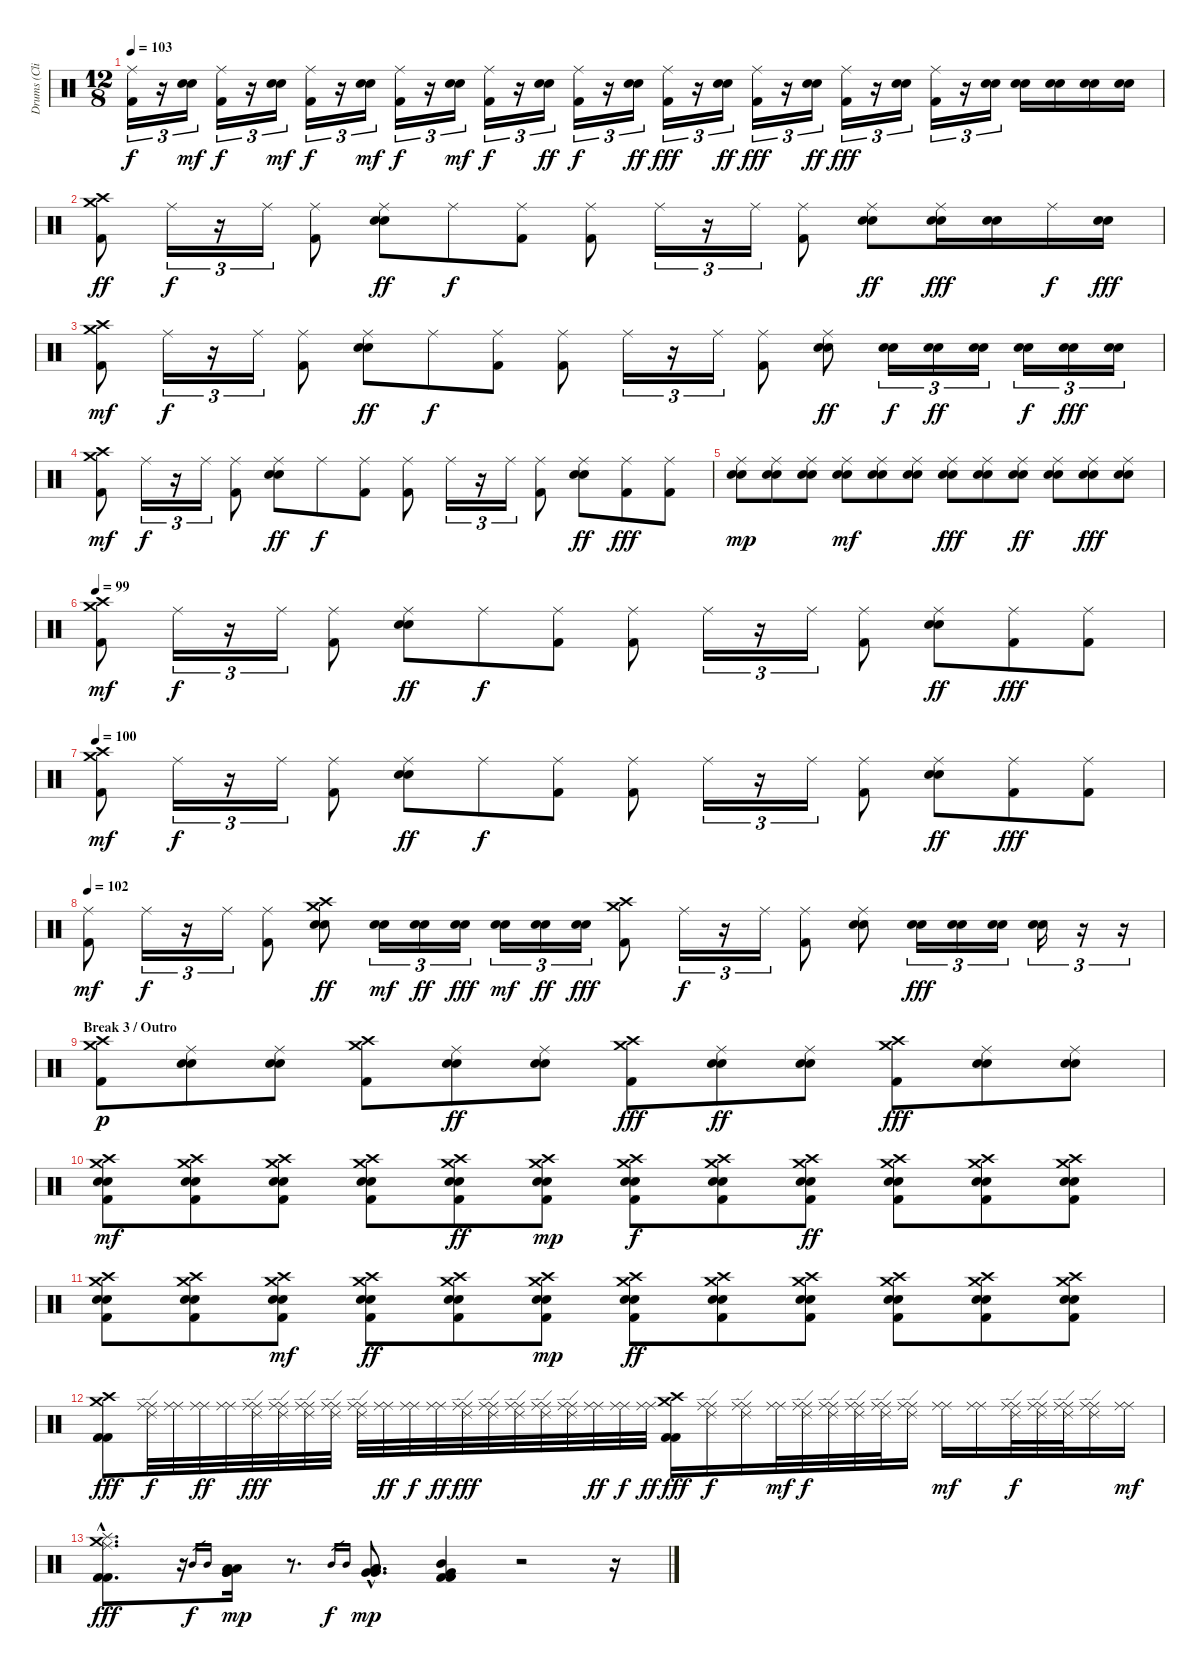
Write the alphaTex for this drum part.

\track ("Drums (Clifford)" "Drums (Cli") {instrument percussion}
\staff {score}
\articulation defaults
\ts (12 8)
\tempo 100
\tempo 103
\clef neutral
\ks c
("Ride (middle)" "Kick (hit) 2").16{tu (3 2) dy f volume 16} r.16{tu (3 2)} ("Snare (hit) 2" "Electric Snare (hit)").16{tu (3 2) dy mf} ("Ride (middle)" "Kick (hit) 2").16{tu (3 2) dy f} r.16{tu (3 2)} ("Snare (hit) 2" "Electric Snare (hit)").16{tu (3 2) dy mf} ("Ride (middle)" "Kick (hit) 2").16{tu (3 2) dy f} r.16{tu (3 2)} ("Snare (hit) 2" "Electric Snare (hit)").16{tu (3 2) dy mf} ("Ride (middle)" "Kick (hit) 2").16{tu (3 2) dy f} r.16{tu (3 2)} ("Snare (hit) 2" "Electric Snare (hit)").16{tu (3 2) dy mf} ("Ride (middle)" "Kick (hit) 2").16{tu (3 2) dy f} r.16{tu (3 2)} ("Snare (hit) 2" "Electric Snare (hit)").16{tu (3 2) dy ff} ("Ride (middle)" "Kick (hit) 2").16{tu (3 2) dy f} r.16{tu (3 2)} ("Snare (hit) 2" "Electric Snare (hit)").16{tu (3 2) dy ff} ("Ride (middle)" "Kick (hit) 2").16{tu (3 2) dy fff} r.16{tu (3 2)} ("Snare (hit) 2" "Electric Snare (hit)").16{tu (3 2) dy ff} ("Ride (middle)" "Kick (hit) 2").16{tu (3 2) dy fff} r.16{tu (3 2)} ("Snare (hit) 2" "Electric Snare (hit)").16{tu (3 2) dy ff} ("Ride (middle)" "Kick (hit) 2").16{tu (3 2) dy fff} r.16{tu (3 2)} ("Snare (hit) 2" "Electric Snare (hit)").16{tu (3 2)} ("Ride (middle)" "Kick (hit) 2").16{tu (3 2)} r.16{tu (3 2)} ("Snare (hit) 2" "Electric Snare (hit)").16{tu (3 2)} ("Snare (hit) 2" "Electric Snare (hit)").16 ("Snare (hit) 2" "Electric Snare (hit)").16 ("Snare (hit) 2" "Electric Snare (hit)").16 ("Snare (hit) 2" "Electric Snare (hit)").16 |
("Crash medium (hit)" "Crash high (hit)" "Kick (hit) 2").8{dy ff} "Ride (middle)".16{tu (3 2) dy f} r.16{tu (3 2)} "Ride (middle)".16{tu (3 2)} ("Ride (middle)" "Kick (hit) 2").8 ("Ride (middle)" "Snare (hit) 2" "Electric Snare (hit)").8{dy ff} "Ride (middle)".8{dy f} ("Ride (middle)" "Kick (hit) 2").8 ("Ride (middle)" "Kick (hit) 2").8 "Ride (middle)".16{tu (3 2)} r.16{tu (3 2)} "Ride (middle)".16{tu (3 2)} ("Ride (middle)" "Kick (hit) 2").8 ("Ride (middle)" "Snare (hit) 2" "Electric Snare (hit)").8{dy ff} ("Ride (middle)" "Snare (hit) 2" "Electric Snare (hit)").16{dy fff} ("Snare (hit) 2" "Electric Snare (hit)").16 "Ride (middle)".16{dy f} ("Snare (hit) 2" "Electric Snare (hit)").16{dy fff} |
("Crash medium (hit)" "Crash high (hit)" "Kick (hit) 2").8{dy mf} "Ride (middle)".16{tu (3 2) dy f} r.16{tu (3 2)} "Ride (middle)".16{tu (3 2)} ("Ride (middle)" "Kick (hit) 2").8 ("Ride (middle)" "Snare (hit) 2" "Electric Snare (hit)").8{dy ff} "Ride (middle)".8{dy f} ("Ride (middle)" "Kick (hit) 2").8 ("Ride (middle)" "Kick (hit) 2").8 "Ride (middle)".16{tu (3 2)} r.16{tu (3 2)} "Ride (middle)".16{tu (3 2)} ("Ride (middle)" "Kick (hit) 2").8 ("Ride (middle)" "Snare (hit) 2" "Electric Snare (hit)").8{dy ff} ("Snare (hit) 2" "Electric Snare (hit)").16{tu (3 2) dy f} ("Snare (hit) 2" "Electric Snare (hit)").16{tu (3 2) dy ff} ("Snare (hit) 2" "Electric Snare (hit)").16{tu (3 2)} ("Snare (hit) 2" "Electric Snare (hit)").16{tu (3 2) dy f} ("Snare (hit) 2" "Electric Snare (hit)").16{tu (3 2) dy fff} ("Snare (hit) 2" "Electric Snare (hit)").16{tu (3 2)} |
("Crash medium (hit)" "Crash high (hit)" "Kick (hit) 2").8{dy mf} "Ride (middle)".16{tu (3 2) dy f} r.16{tu (3 2)} "Ride (middle)".16{tu (3 2)} ("Ride (middle)" "Kick (hit) 2").8 ("Ride (middle)" "Snare (hit) 2" "Electric Snare (hit)").8{dy ff} "Ride (middle)".8{dy f} ("Ride (middle)" "Kick (hit) 2").8 ("Ride (middle)" "Kick (hit) 2").8 "Ride (middle)".16{tu (3 2)} r.16{tu (3 2)} "Ride (middle)".16{tu (3 2)} ("Ride (middle)" "Kick (hit) 2").8 ("Ride (middle)" "Snare (hit) 2" "Electric Snare (hit)").8{dy ff} ("Ride (middle)" "Kick (hit) 2").8{dy fff} ("Ride (middle)" "Kick (hit) 2").8 |
("Ride (middle)" "Snare (hit) 2" "Electric Snare (hit)").8{dy mp volume 16} ("Ride (middle)" "Snare (hit) 2" "Electric Snare (hit)").8 ("Ride (middle)" "Snare (hit) 2" "Electric Snare (hit)").8 ("Ride (middle)" "Snare (hit) 2" "Electric Snare (hit)").8{dy mf} ("Ride (middle)" "Snare (hit) 2" "Electric Snare (hit)").8 ("Ride (middle)" "Snare (hit) 2" "Electric Snare (hit)").8 ("Ride (middle)" "Snare (hit) 2" "Electric Snare (hit)").8{dy fff} ("Ride (middle)" "Snare (hit) 2" "Electric Snare (hit)").8 ("Ride (middle)" "Snare (hit) 2" "Electric Snare (hit)").8{dy ff} ("Ride (middle)" "Snare (hit) 2" "Electric Snare (hit)").8 ("Ride (middle)" "Snare (hit) 2" "Electric Snare (hit)").8{dy fff} ("Ride (middle)" "Snare (hit) 2" "Electric Snare (hit)").8 |
\tempo 99
("Crash medium (hit)" "Crash high (hit)" "Kick (hit) 2").8{dy mf volume 13} "Ride (middle)".16{tu (3 2) dy f} r.16{tu (3 2)} "Ride (middle)".16{tu (3 2)} ("Ride (middle)" "Kick (hit) 2").8 ("Ride (middle)" "Snare (hit) 2" "Electric Snare (hit)").8{dy ff} "Ride (middle)".8{dy f} ("Ride (middle)" "Kick (hit) 2").8 ("Ride (middle)" "Kick (hit) 2").8 "Ride (middle)".16{tu (3 2)} r.16{tu (3 2)} "Ride (middle)".16{tu (3 2)} ("Ride (middle)" "Kick (hit) 2").8 ("Ride (middle)" "Snare (hit) 2" "Electric Snare (hit)").8{dy ff} ("Ride (middle)" "Kick (hit) 2").8{dy fff} ("Ride (middle)" "Kick (hit) 2").8 |
\tempo 100
("Crash medium (hit)" "Crash high (hit)" "Kick (hit) 2").8{dy mf} "Ride (middle)".16{tu (3 2) dy f} r.16{tu (3 2)} "Ride (middle)".16{tu (3 2)} ("Ride (middle)" "Kick (hit) 2").8 ("Ride (middle)" "Snare (hit) 2" "Electric Snare (hit)").8{dy ff} "Ride (middle)".8{dy f} ("Ride (middle)" "Kick (hit) 2").8 ("Ride (middle)" "Kick (hit) 2").8 "Ride (middle)".16{tu (3 2)} r.16{tu (3 2)} "Ride (middle)".16{tu (3 2)} ("Ride (middle)" "Kick (hit) 2").8 ("Ride (middle)" "Snare (hit) 2" "Electric Snare (hit)").8{dy ff} ("Ride (middle)" "Kick (hit) 2").8{dy fff} ("Ride (middle)" "Kick (hit) 2").8 |
\tempo 102
("Ride (middle)" "Kick (hit) 2").8{dy mf} "Ride (middle)".16{tu (3 2) dy f} r.16{tu (3 2)} "Ride (middle)".16{tu (3 2)} ("Ride (middle)" "Kick (hit) 2").8 ("Crash medium (hit)" "Crash high (hit)" "Snare (hit) 2" "Electric Snare (hit)").8{dy ff} ("Snare (hit) 2" "Electric Snare (hit)").16{tu (3 2) dy mf} ("Snare (hit) 2" "Electric Snare (hit)").16{tu (3 2) dy ff} ("Snare (hit) 2" "Electric Snare (hit)").16{tu (3 2) dy fff} ("Snare (hit) 2" "Electric Snare (hit)").16{tu (3 2) dy mf} ("Snare (hit) 2" "Electric Snare (hit)").16{tu (3 2) dy ff} ("Snare (hit) 2" "Electric Snare (hit)").16{tu (3 2) dy fff} ("Crash medium (hit)" "Crash high (hit)" "Kick (hit) 2").8 "Ride (middle)".16{tu (3 2) dy f} r.16{tu (3 2)} "Ride (middle)".16{tu (3 2)} ("Ride (middle)" "Kick (hit) 2").8 ("Ride (middle)" "Snare (hit) 2" "Electric Snare (hit)").8 ("Snare (hit) 2" "Electric Snare (hit)").16{tu (3 2) dy fff} ("Snare (hit) 2" "Electric Snare (hit)").16{tu (3 2)} ("Snare (hit) 2" "Electric Snare (hit)").16{tu (3 2)} ("Snare (hit) 2" "Electric Snare (hit)").16{tu (3 2)} r.16{tu (3 2)} r.16{tu (3 2)} |
\section ("" "Break 3 / Outro")
("Crash medium (hit)" "Crash high (hit)" "Kick (hit) 2").8{dy p volume 16} ("Ride (middle)" "Snare (hit) 2" "Electric Snare (hit)").8 ("Ride (middle)" "Snare (hit) 2" "Electric Snare (hit)").8 ("Crash medium (hit)" "Crash high (hit)" "Kick (hit) 2").8 ("Ride (middle)" "Snare (hit) 2" "Electric Snare (hit)").8{dy ff} ("Ride (middle)" "Snare (hit) 2" "Electric Snare (hit)").8 ("Crash medium (hit)" "Crash high (hit)" "Kick (hit) 2").8{dy fff} ("Ride (middle)" "Snare (hit) 2" "Electric Snare (hit)").8{dy ff} ("Ride (middle)" "Snare (hit) 2" "Electric Snare (hit)").8 ("Crash medium (hit)" "Crash high (hit)" "Kick (hit) 2").8{dy fff} ("Ride (middle)" "Snare (hit) 2" "Electric Snare (hit)").8 ("Ride (middle)" "Snare (hit) 2" "Electric Snare (hit)").8 |
("Crash medium (hit)" "Crash high (hit)" "Snare (hit) 2" "Electric Snare (hit)" "Kick (hit) 2").8{dy mf} ("Crash medium (hit)" "Crash high (hit)" "Snare (hit) 2" "Electric Snare (hit)" "Kick (hit) 2").8 ("Crash medium (hit)" "Crash high (hit)" "Snare (hit) 2" "Electric Snare (hit)" "Kick (hit) 2").8 ("Crash medium (hit)" "Crash high (hit)" "Snare (hit) 2" "Electric Snare (hit)" "Kick (hit) 2").8 ("Crash medium (hit)" "Crash high (hit)" "Snare (hit) 2" "Electric Snare (hit)" "Kick (hit) 2").8{dy ff} ("Crash medium (hit)" "Crash high (hit)" "Snare (hit) 2" "Electric Snare (hit)" "Kick (hit) 2").8{dy mp} ("Crash medium (hit)" "Crash high (hit)" "Snare (hit) 2" "Electric Snare (hit)" "Kick (hit) 2").8{dy f volume 16} ("Crash medium (hit)" "Crash high (hit)" "Snare (hit) 2" "Electric Snare (hit)" "Kick (hit) 2").8 ("Crash medium (hit)" "Crash high (hit)" "Snare (hit) 2" "Electric Snare (hit)" "Kick (hit) 2").8{dy ff} ("Crash medium (hit)" "Crash high (hit)" "Snare (hit) 2" "Electric Snare (hit)" "Kick (hit) 2").8 ("Crash medium (hit)" "Crash high (hit)" "Snare (hit) 2" "Electric Snare (hit)" "Kick (hit) 2").8 ("Crash medium (hit)" "Crash high (hit)" "Snare (hit) 2" "Electric Snare (hit)" "Kick (hit) 2").8 |
("Crash medium (hit)" "Crash high (hit)" "Snare (hit) 2" "Electric Snare (hit)" "Kick (hit) 2").8 ("Crash medium (hit)" "Crash high (hit)" "Snare (hit) 2" "Electric Snare (hit)" "Kick (hit) 2").8 ("Crash medium (hit)" "Crash high (hit)" "Snare (hit) 2" "Electric Snare (hit)" "Kick (hit) 2").8{dy mf} ("Crash medium (hit)" "Crash high (hit)" "Snare (hit) 2" "Electric Snare (hit)" "Kick (hit) 2").8{dy ff} ("Crash medium (hit)" "Crash high (hit)" "Snare (hit) 2" "Electric Snare (hit)" "Kick (hit) 2").8 ("Crash medium (hit)" "Crash high (hit)" "Snare (hit) 2" "Electric Snare (hit)" "Kick (hit) 2").8{dy mp} ("Crash medium (hit)" "Crash high (hit)" "Snare (hit) 2" "Electric Snare (hit)" "Kick (hit) 2").8{dy ff volume 16} ("Crash medium (hit)" "Crash high (hit)" "Snare (hit) 2" "Electric Snare (hit)" "Kick (hit) 2").8 ("Crash medium (hit)" "Crash high (hit)" "Snare (hit) 2" "Electric Snare (hit)" "Kick (hit) 2").8 ("Crash medium (hit)" "Crash high (hit)" "Snare (hit) 2" "Electric Snare (hit)" "Kick (hit) 2").8 ("Crash medium (hit)" "Crash high (hit)" "Snare (hit) 2" "Electric Snare (hit)" "Kick (hit) 2").8 ("Crash medium (hit)" "Crash high (hit)" "Snare (hit) 2" "Electric Snare (hit)" "Kick (hit) 2").8 |
("Crash medium (hit)" "Crash high (hit)" "Kick (hit) 2" "Kick (hit) 2").8{dy fff} ("Ride (middle)" "Ride (middle)" "Ride (edge) 2").32{dy f} ("Ride (middle)" "Ride (middle)").32 ("Ride (middle)" "Ride (middle)").32{dy ff} ("Ride (middle)" "Ride (middle)").32 ("Ride (middle)" "Ride (middle)" "Ride (edge) 2").32{dy fff} ("Ride (middle)" "Ride (middle)" "Ride (edge) 2").32 ("Ride (middle)" "Ride (middle)" "Ride (edge) 2").32 ("Ride (middle)" "Ride (middle)" "Ride (edge) 2").32 ("Ride (middle)" "Ride (middle)" "Ride (edge) 2").32 ("Ride (middle)" "Ride (middle)").32{dy ff} ("Ride (middle)" "Ride (middle)").32{dy f} ("Ride (middle)" "Ride (middle)").32{dy ff} ("Ride (middle)" "Ride (middle)" "Ride (edge) 2").32{dy fff} ("Ride (middle)" "Ride (middle)" "Ride (edge) 2").32 ("Ride (middle)" "Ride (middle)" "Ride (edge) 2").32 ("Ride (middle)" "Ride (middle)" "Ride (edge) 2").32 ("Ride (middle)" "Ride (middle)" "Ride (edge) 2").32 ("Ride (middle)" "Ride (middle)").32{dy ff} ("Ride (middle)" "Ride (middle)").32{dy f} ("Ride (middle)" "Ride (middle)").32{dy ff} ("Crash medium (hit)" "Crash high (hit)" "Kick (hit) 2" "Kick (hit) 2").16{dy fff} ("Ride (middle)" "Ride (middle)" "Ride (edge) 2").16{dy f} ("Ride (middle)" "Ride (middle)" "Ride (edge) 2").16 ("Ride (middle)" "Ride (middle)").32{dy mf} ("Ride (middle)" "Ride (middle)" "Ride (edge) 2").32{dy f} ("Ride (middle)" "Ride (middle)" "Ride (edge) 2").32 ("Ride (middle)" "Ride (middle)" "Ride (edge) 2").32 ("Ride (middle)" "Ride (middle)" "Ride (edge) 2").32 ("Ride (middle)" "Ride (middle)" "Ride (edge) 2").16 ("Ride (middle)" "Ride (middle)").16{dy mf} ("Ride (middle)" "Ride (middle)").16 ("Ride (middle)" "Ride (middle)" "Ride (edge) 2").32{dy f} ("Ride (middle)" "Ride (middle)" "Ride (edge) 2").32 ("Ride (middle)" "Ride (middle)" "Ride (edge) 2").32 ("Ride (middle)" "Ride (middle)" "Ride (edge) 2").16 ("Ride (middle)" "Ride (middle)").16{dy mf} |
("Crash medium (hit)"{hac} "Ride (middle)"{hac} "Splash (hit)"{hac} "Kick (hit) 2"{hac} "Kick (hit) 2").8{d dy fff} r.16 "Mid Tom (hit)".16{gr dy f} "Mid Tom (hit)".16{gr} ("Low Floor Tom (hit)" "Low Floor Tom (hit)" "Very Low Tom (hit)" "Very Low Tom (hit)").16{bd 480 dy mp volume 3} r.8{d} "Mid Tom (hit)".16{gr dy f} "Mid Tom (hit)".16{gr} ("Low Floor Tom (hit)"{hac} "Low Floor Tom (hit)"{hac} "Very Low Tom (hit)"{hac} "Very Low Tom (hit)"{hac}).8{d bd 480 dy mp} ("Mid Tom (hit)" "Very Low Tom (hit)" "Kick (hit) 2" "Kick (hit) 2").4{bu 480} r.2 r.16
